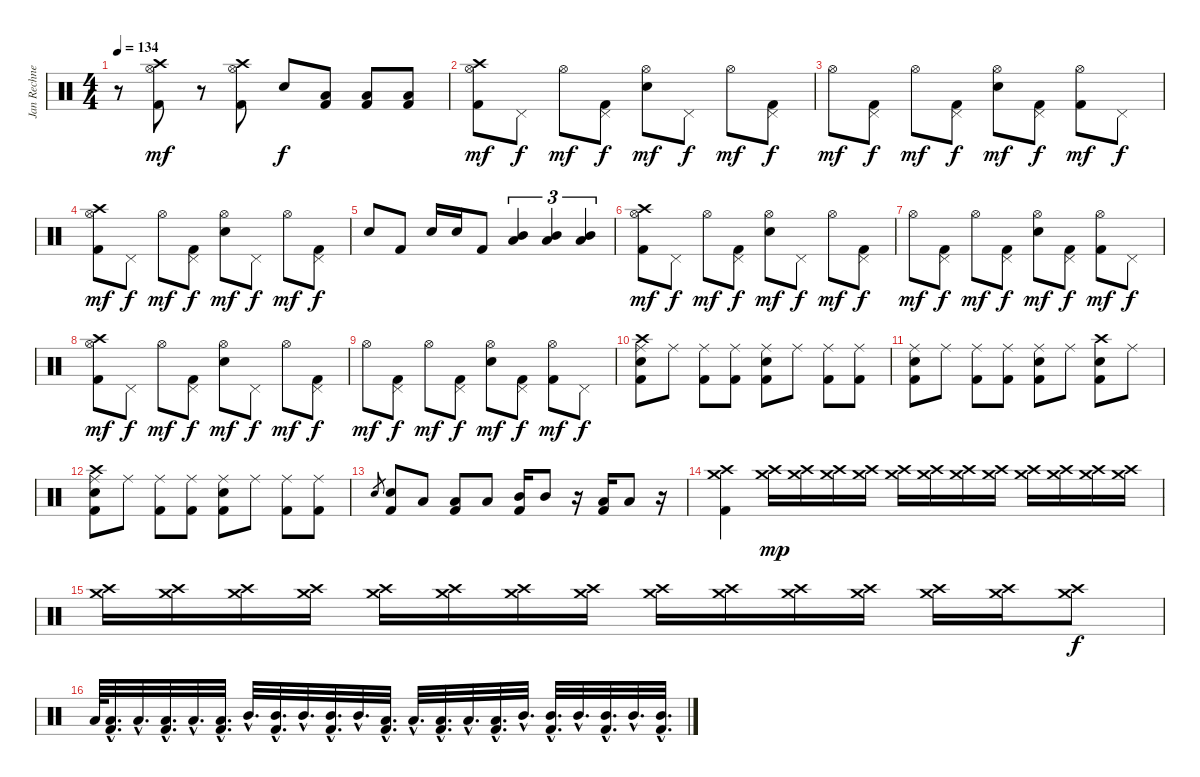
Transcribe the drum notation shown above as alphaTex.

\track ("Jan Rechnerger" "Jan Rechne") {instrument percussion}
\staff {score}
\articulation defaults
\ts (4 4)
\tempo 134
\clef neutral
\ks c
r.8{dy mf} ("Crash high (hit)" "Hi-Hat (open)" "Kick (hit) 2").8 r.8 ("Crash high (hit)" "Hi-Hat (open)" "Kick (hit) 2").8 "Snare (hit) 2".8{dy f} ("Low Tom (hit)" "Kick (hit) 2").8 ("Low Tom (hit)" "Kick (hit) 2").8 ("Low Tom (hit)" "Kick (hit) 2").8 |
("Crash high (hit)" "Hi-Hat (open)" "Kick (hit) 2").8{dy mf} "Pedal Hi-Hat (hit)".8{dy f} "Hi-Hat (open)".8{dy mf} ("Pedal Hi-Hat (hit)" "Kick (hit) 2").8{dy f} ("Hi-Hat (open)" "Snare (hit) 2").8{dy mf} "Pedal Hi-Hat (hit)".8{dy f} "Hi-Hat (open)".8{dy mf} ("Pedal Hi-Hat (hit)" "Kick (hit) 2").8{dy f} |
"Hi-Hat (open)".8{dy mf} ("Pedal Hi-Hat (hit)" "Kick (hit) 2").8{dy f} "Hi-Hat (open)".8{dy mf} ("Pedal Hi-Hat (hit)" "Kick (hit) 2").8{dy f} ("Hi-Hat (open)" "Snare (hit) 2").8{dy mf} ("Pedal Hi-Hat (hit)" "Kick (hit) 2").8{dy f} ("Hi-Hat (open)" "Kick (hit) 2").8{dy mf} "Pedal Hi-Hat (hit)".8{dy f} |
("Crash high (hit)" "Hi-Hat (open)" "Kick (hit) 2").8{dy mf} "Pedal Hi-Hat (hit)".8{dy f} "Hi-Hat (open)".8{dy mf} ("Pedal Hi-Hat (hit)" "Kick (hit) 2").8{dy f} ("Hi-Hat (open)" "Snare (hit) 2").8{dy mf} "Pedal Hi-Hat (hit)".8{dy f} "Hi-Hat (open)".8{dy mf} ("Pedal Hi-Hat (hit)" "Kick (hit) 2").8{dy f} |
"Snare (hit) 2".8 "Kick (hit) 2".8 "Snare (hit) 2".16 "Snare (hit) 2".16 "Kick (hit) 2".8 ("Low Tom (hit)" "Mid Tom (hit)").4{tu (3 2)} ("Low Tom (hit)" "Mid Tom (hit)").4{tu (3 2)} ("Low Tom (hit)" "Mid Tom (hit)").4{tu (3 2)} |
("Crash high (hit)" "Hi-Hat (open)" "Kick (hit) 2").8{dy mf} "Pedal Hi-Hat (hit)".8{dy f} "Hi-Hat (open)".8{dy mf} ("Pedal Hi-Hat (hit)" "Kick (hit) 2").8{dy f} ("Hi-Hat (open)" "Snare (hit) 2").8{dy mf} "Pedal Hi-Hat (hit)".8{dy f} "Hi-Hat (open)".8{dy mf} ("Pedal Hi-Hat (hit)" "Kick (hit) 2").8{dy f} |
"Hi-Hat (open)".8{dy mf} ("Pedal Hi-Hat (hit)" "Kick (hit) 2").8{dy f} "Hi-Hat (open)".8{dy mf} ("Pedal Hi-Hat (hit)" "Kick (hit) 2").8{dy f} ("Hi-Hat (open)" "Snare (hit) 2").8{dy mf} ("Pedal Hi-Hat (hit)" "Kick (hit) 2").8{dy f} ("Hi-Hat (open)" "Kick (hit) 2").8{dy mf} "Pedal Hi-Hat (hit)".8{dy f} |
("Crash high (hit)" "Hi-Hat (open)" "Kick (hit) 2").8{dy mf} "Pedal Hi-Hat (hit)".8{dy f} "Hi-Hat (open)".8{dy mf} ("Pedal Hi-Hat (hit)" "Kick (hit) 2").8{dy f} ("Hi-Hat (open)" "Snare (hit) 2").8{dy mf} "Pedal Hi-Hat (hit)".8{dy f} "Hi-Hat (open)".8{dy mf} ("Pedal Hi-Hat (hit)" "Kick (hit) 2").8{dy f} |
"Hi-Hat (open)".8{dy mf} ("Pedal Hi-Hat (hit)" "Kick (hit) 2").8{dy f} "Hi-Hat (open)".8{dy mf} ("Pedal Hi-Hat (hit)" "Kick (hit) 2").8{dy f} ("Hi-Hat (open)" "Snare (hit) 2").8{dy mf} ("Pedal Hi-Hat (hit)" "Kick (hit) 2").8{dy f} ("Hi-Hat (open)" "Kick (hit) 2").8{dy mf} "Pedal Hi-Hat (hit)".8{dy f} |
("Crash high (hit)" "Ride (middle)" "Snare (hit) 2" "Kick (hit) 2").8 "Ride (middle)".8 ("Ride (middle)" "Kick (hit) 2").8 ("Ride (middle)" "Kick (hit) 2").8 ("Ride (middle)" "Snare (hit) 2" "Kick (hit) 2").8 "Ride (middle)".8 ("Ride (middle)" "Kick (hit) 2").8 ("Ride (middle)" "Kick (hit) 2").8 |
("Ride (middle)" "Snare (hit) 2" "Kick (hit) 2").8 "Ride (middle)".8 ("Ride (middle)" "Kick (hit) 2").8 ("Ride (middle)" "Kick (hit) 2").8 ("Ride (middle)" "Snare (hit) 2" "Kick (hit) 2").8 "Ride (middle)".8 ("Crash high (hit)" "Snare (hit) 2" "Kick (hit) 2").8 "Ride (middle)".8 |
("Crash high (hit)" "Ride (middle)" "Snare (hit) 2" "Kick (hit) 2").8 "Ride (middle)".8 ("Ride (middle)" "Kick (hit) 2").8 ("Ride (middle)" "Kick (hit) 2").8 ("Ride (middle)" "Snare (hit) 2" "Kick (hit) 2").8 "Ride (middle)".8 ("Ride (middle)" "Kick (hit) 2").8 ("Ride (middle)" "Kick (hit) 2").8 |
"Snare (hit) 2".8{gr} ("Snare (hit) 2" "Kick (hit) 2").8 "Low Tom (hit)".8 ("Low Tom (hit)" "Kick (hit) 2").8 "Low Tom (hit)".8 ("Mid Tom (hit)" "Kick (hit) 2").16 "Mid Tom (hit)".8 r.16 ("Low Tom (hit)" "Kick (hit) 2").16 "Low Tom (hit)".8 r.16 |
("Crash high (hit)" "Crash medium (hit)" "Kick (hit) 2").4 ("Crash high (hit)" "Crash medium (hit)").16{dy mp} ("Crash high (hit)" "Crash medium (hit)").16 ("Crash high (hit)" "Crash medium (hit)").16 ("Crash high (hit)" "Crash medium (hit)").16 ("Crash high (hit)" "Crash medium (hit)").16 ("Crash high (hit)" "Crash medium (hit)").16 ("Crash high (hit)" "Crash medium (hit)").16 ("Crash high (hit)" "Crash medium (hit)").16 ("Crash high (hit)" "Crash medium (hit)").16 ("Crash high (hit)" "Crash medium (hit)").16 ("Crash high (hit)" "Crash medium (hit)").16 ("Crash high (hit)" "Crash medium (hit)").16 |
("Crash high (hit)" "Crash medium (hit)").16 ("Crash high (hit)" "Crash medium (hit)").16 ("Crash high (hit)" "Crash medium (hit)").16 ("Crash high (hit)" "Crash medium (hit)").16 ("Crash high (hit)" "Crash medium (hit)").16 ("Crash high (hit)" "Crash medium (hit)").16 ("Crash high (hit)" "Crash medium (hit)").16 ("Crash high (hit)" "Crash medium (hit)").16 ("Crash high (hit)" "Crash medium (hit)").16 ("Crash high (hit)" "Crash medium (hit)").16 ("Crash high (hit)" "Crash medium (hit)").16 ("Crash high (hit)" "Crash medium (hit)").16 ("Crash high (hit)" "Crash medium (hit)").16 ("Crash high (hit)" "Crash medium (hit)").16 ("Crash high (hit)" "Crash medium (hit)").8{dy f} |
"Low Tom (hit)".64 ("Low Tom (hit)"{hac} "Kick (hit) 2"{hac}).32{d} "Low Tom (hit)"{hac}.32{d} ("Low Tom (hit)"{hac} "Kick (hit) 2"{hac}).32{d} "Low Tom (hit)"{hac}.32{d} ("Low Tom (hit)"{hac} "Kick (hit) 2"{hac}).32{d} "Mid Tom (hit)"{hac}.32{d} ("Mid Tom (hit)"{hac} "Kick (hit) 2"{hac}).32{d} "Mid Tom (hit)"{hac}.32{d} ("Mid Tom (hit)"{hac} "Kick (hit) 2"{hac}).32{d} "Mid Tom (hit)"{hac}.32{d} ("Low Tom (hit)"{hac} "Kick (hit) 2"{hac}).32{d} "Low Tom (hit)"{hac}.32{d} ("Low Tom (hit)"{hac} "Kick (hit) 2"{hac}).32{d} "Low Tom (hit)"{hac}.32{d} ("Low Tom (hit)"{hac} "Kick (hit) 2"{hac}).32{d} "Mid Tom (hit)"{hac}.32{d} ("Mid Tom (hit)"{hac} "Kick (hit) 2"{hac}).32{d} "Mid Tom (hit)"{hac}.32{d} ("Mid Tom (hit)"{hac} "Kick (hit) 2"{hac}).32{d} "Mid Tom (hit)"{hac}.32{d} ("Mid Tom (hit)"{hac} "Kick (hit) 2"{hac}).32{d}
